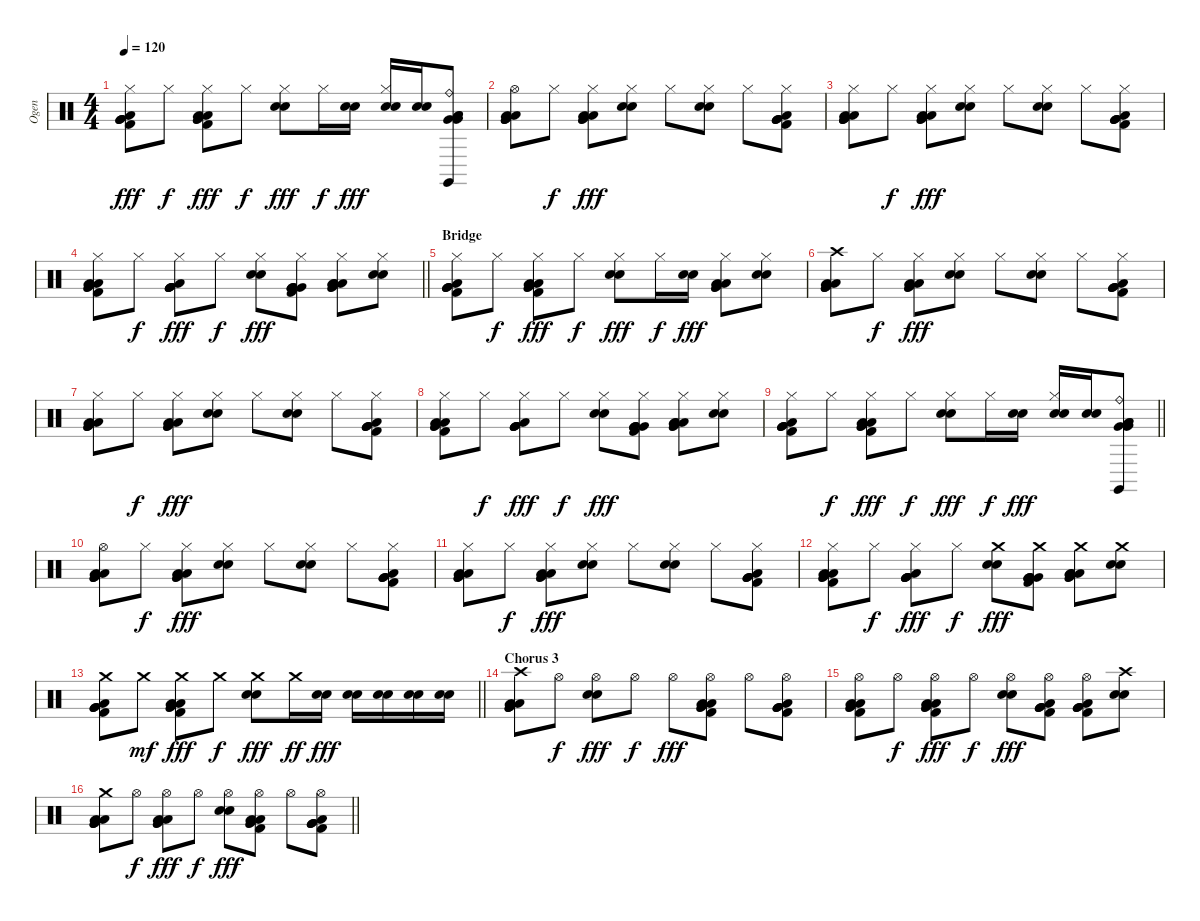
\track ("Ogen" "Ogen") {instrument percussion}
\staff {score}
\articulation defaults
\ts (4 4)
\tempo 120
\clef neutral
\ks c
("Hi-Hat (closed)" "Kick (hit) 2" "Very Low Tom (hit)" "Very Low Tom (hit)" "Low Floor Tom (hit)" "Very Low Tom (hit)").8{dy fff} "Hi-Hat (closed)".8{dy f} ("Hi-Hat (closed)" "Kick (hit) 2" "Very Low Tom (hit)" "Low Floor Tom (hit)" "Very Low Tom (hit)" "Low Floor Tom (hit)").8{dy fff} "Hi-Hat (closed)".8{dy f} ("Hi-Hat (closed)" "Snare (hit) 2" "Electric Snare (hit)").8{dy fff} "Hi-Hat (closed)".16{dy f} ("Snare (hit) 2" "Electric Snare (hit)").16{dy fff} ("Snare (hit) 2" "Electric Snare (hit)" "Hi-Hat (closed)").16 ("Electric Snare (hit)" "Snare (hit) 2").16 ("Ride (bell)" "Claves (hit)" "Very Low Tom (hit)" "Low Floor Tom (hit)" "Very Low Tom (hit)" "Low Floor Tom (hit)").8 |
("Hi-Hat (open)" "Very Low Tom (hit)" "Low Floor Tom (hit)" "Very Low Tom (hit)" "Low Floor Tom (hit)" "Very Low Tom (hit)").8 "Hi-Hat (closed)".8{dy f} ("Hi-Hat (closed)" "Very Low Tom (hit)" "Low Floor Tom (hit)" "Low Floor Tom (hit)" "Very Low Tom (hit)").8{dy fff} ("Hi-Hat (closed)" "Electric Snare (hit)" "Snare (hit) 2").8 "Hi-Hat (closed)".8 ("Hi-Hat (closed)" "Snare (hit) 2" "Electric Snare (hit)").8 "Hi-Hat (closed)".8 ("Hi-Hat (closed)" "Very Low Tom (hit)" "Kick (hit) 2" "Very Low Tom (hit)" "Low Floor Tom (hit)" "Very Low Tom (hit)").8 |
("Hi-Hat (closed)" "Very Low Tom (hit)" "Low Floor Tom (hit)" "Very Low Tom (hit)" "Low Floor Tom (hit)" "Very Low Tom (hit)").8 "Hi-Hat (closed)".8{dy f} ("Hi-Hat (closed)" "Very Low Tom (hit)" "Low Floor Tom (hit)" "Low Floor Tom (hit)" "Very Low Tom (hit)").8{dy fff} ("Hi-Hat (closed)" "Electric Snare (hit)" "Snare (hit) 2").8 "Hi-Hat (closed)".8 ("Hi-Hat (closed)" "Snare (hit) 2" "Electric Snare (hit)").8 "Hi-Hat (closed)".8 ("Hi-Hat (closed)" "Very Low Tom (hit)" "Kick (hit) 2" "Very Low Tom (hit)" "Low Floor Tom (hit)" "Very Low Tom (hit)").8 |
\barLineRight lightlight
("Hi-Hat (closed)" "Very Low Tom (hit)" "Low Floor Tom (hit)" "Kick (hit) 2" "Very Low Tom (hit)" "Low Floor Tom (hit)").8 "Hi-Hat (closed)".8{dy f} ("Hi-Hat (closed)" "Very Low Tom (hit)" "Low Floor Tom (hit)" "Very Low Tom (hit)" "Very Low Tom (hit)" "Very Low Tom (hit)").8{dy fff} "Hi-Hat (closed)".8{dy f} ("Hi-Hat (closed)" "Snare (hit) 2" "Electric Snare (hit)").8{dy fff} ("Hi-Hat (closed)" "Very Low Tom (hit)" "Kick (hit) 2" "Very Low Tom (hit)" "Very Low Tom (hit)" "Very Low Tom (hit)").8 ("Hi-Hat (closed)" "Low Floor Tom (hit)" "Low Floor Tom (hit)" "Low Floor Tom (hit)" "Very Low Tom (hit)" "Very Low Tom (hit)").8 ("Hi-Hat (closed)" "Electric Snare (hit)" "Snare (hit) 2").8 |
\section ("" "Bridge")
("Hi-Hat (closed)" "Kick (hit) 2" "Very Low Tom (hit)" "Very Low Tom (hit)" "Low Floor Tom (hit)" "Very Low Tom (hit)").8 "Hi-Hat (closed)".8{dy f} ("Hi-Hat (closed)" "Kick (hit) 2" "Very Low Tom (hit)" "Low Floor Tom (hit)" "Very Low Tom (hit)" "Low Floor Tom (hit)").8{dy fff} "Hi-Hat (closed)".8{dy f} ("Hi-Hat (closed)" "Snare (hit) 2" "Electric Snare (hit)").8{dy fff} "Hi-Hat (closed)".16{dy f} ("Snare (hit) 2" "Electric Snare (hit)").16{dy fff} ("Low Floor Tom (hit)" "Very Low Tom (hit)" "Low Floor Tom (hit)" "Very Low Tom (hit)" "Hi-Hat (closed)").8 ("Electric Snare (hit)" "Snare (hit) 2" "Hi-Hat (closed)").8 |
("Crash high (hit)" "Very Low Tom (hit)" "Low Floor Tom (hit)" "Very Low Tom (hit)" "Low Floor Tom (hit)" "Very Low Tom (hit)").8 "Hi-Hat (closed)".8{dy f} ("Hi-Hat (closed)" "Very Low Tom (hit)" "Low Floor Tom (hit)" "Low Floor Tom (hit)" "Very Low Tom (hit)").8{dy fff} ("Hi-Hat (closed)" "Electric Snare (hit)" "Snare (hit) 2").8 "Hi-Hat (closed)".8 ("Hi-Hat (closed)" "Snare (hit) 2" "Electric Snare (hit)").8 "Hi-Hat (closed)".8 ("Hi-Hat (closed)" "Very Low Tom (hit)" "Kick (hit) 2" "Very Low Tom (hit)" "Low Floor Tom (hit)" "Very Low Tom (hit)").8 |
("Hi-Hat (closed)" "Very Low Tom (hit)" "Low Floor Tom (hit)" "Very Low Tom (hit)" "Low Floor Tom (hit)" "Very Low Tom (hit)").8 "Hi-Hat (closed)".8{dy f} ("Hi-Hat (closed)" "Very Low Tom (hit)" "Low Floor Tom (hit)" "Low Floor Tom (hit)" "Very Low Tom (hit)").8{dy fff} ("Hi-Hat (closed)" "Electric Snare (hit)" "Snare (hit) 2").8 "Hi-Hat (closed)".8 ("Hi-Hat (closed)" "Snare (hit) 2" "Electric Snare (hit)").8 "Hi-Hat (closed)".8 ("Hi-Hat (closed)" "Very Low Tom (hit)" "Kick (hit) 2" "Very Low Tom (hit)" "Low Floor Tom (hit)" "Very Low Tom (hit)").8 |
("Hi-Hat (closed)" "Very Low Tom (hit)" "Low Floor Tom (hit)" "Kick (hit) 2" "Very Low Tom (hit)" "Low Floor Tom (hit)").8 "Hi-Hat (closed)".8{dy f} ("Hi-Hat (closed)" "Very Low Tom (hit)" "Low Floor Tom (hit)" "Very Low Tom (hit)" "Very Low Tom (hit)" "Very Low Tom (hit)").8{dy fff} "Hi-Hat (closed)".8{dy f} ("Hi-Hat (closed)" "Snare (hit) 2" "Electric Snare (hit)").8{dy fff} ("Hi-Hat (closed)" "Very Low Tom (hit)" "Kick (hit) 2" "Very Low Tom (hit)" "Very Low Tom (hit)" "Very Low Tom (hit)").8 ("Hi-Hat (closed)" "Low Floor Tom (hit)" "Low Floor Tom (hit)" "Low Floor Tom (hit)" "Very Low Tom (hit)" "Very Low Tom (hit)").8 ("Hi-Hat (closed)" "Electric Snare (hit)" "Snare (hit) 2").8 |
\barLineRight lightlight
("Hi-Hat (closed)" "Kick (hit) 2" "Very Low Tom (hit)" "Very Low Tom (hit)" "Low Floor Tom (hit)" "Very Low Tom (hit)").8 "Hi-Hat (closed)".8{dy f} ("Hi-Hat (closed)" "Kick (hit) 2" "Very Low Tom (hit)" "Low Floor Tom (hit)" "Very Low Tom (hit)" "Low Floor Tom (hit)").8{dy fff} "Hi-Hat (closed)".8{dy f} ("Hi-Hat (closed)" "Snare (hit) 2" "Electric Snare (hit)").8{dy fff} "Hi-Hat (closed)".16{dy f} ("Snare (hit) 2" "Electric Snare (hit)").16{dy fff} ("Snare (hit) 2" "Electric Snare (hit)" "Hi-Hat (closed)").16 ("Electric Snare (hit)" "Snare (hit) 2").16 ("Ride (bell)" "Claves (hit)" "Very Low Tom (hit)" "Low Floor Tom (hit)" "Very Low Tom (hit)" "Low Floor Tom (hit)").8 |
("Hi-Hat (open)" "Very Low Tom (hit)" "Low Floor Tom (hit)" "Very Low Tom (hit)" "Low Floor Tom (hit)" "Very Low Tom (hit)").8 "Hi-Hat (closed)".8{dy f} ("Hi-Hat (closed)" "Very Low Tom (hit)" "Low Floor Tom (hit)" "Low Floor Tom (hit)" "Very Low Tom (hit)").8{dy fff} ("Hi-Hat (closed)" "Electric Snare (hit)" "Snare (hit) 2").8 "Hi-Hat (closed)".8 ("Hi-Hat (closed)" "Snare (hit) 2" "Electric Snare (hit)").8 "Hi-Hat (closed)".8 ("Hi-Hat (closed)" "Very Low Tom (hit)" "Kick (hit) 2" "Very Low Tom (hit)" "Low Floor Tom (hit)" "Very Low Tom (hit)").8 |
("Hi-Hat (closed)" "Very Low Tom (hit)" "Low Floor Tom (hit)" "Very Low Tom (hit)" "Low Floor Tom (hit)" "Very Low Tom (hit)").8 "Hi-Hat (closed)".8{dy f} ("Hi-Hat (closed)" "Very Low Tom (hit)" "Low Floor Tom (hit)" "Low Floor Tom (hit)" "Very Low Tom (hit)").8{dy fff} ("Hi-Hat (closed)" "Electric Snare (hit)" "Snare (hit) 2").8 "Hi-Hat (closed)".8 ("Hi-Hat (closed)" "Snare (hit) 2" "Electric Snare (hit)").8 "Hi-Hat (closed)".8 ("Hi-Hat (closed)" "Very Low Tom (hit)" "Kick (hit) 2" "Very Low Tom (hit)" "Low Floor Tom (hit)" "Very Low Tom (hit)").8 |
("Hi-Hat (closed)" "Very Low Tom (hit)" "Low Floor Tom (hit)" "Kick (hit) 2" "Very Low Tom (hit)" "Low Floor Tom (hit)").8 "Hi-Hat (closed)".8{dy f} ("Hi-Hat (closed)" "Very Low Tom (hit)" "Low Floor Tom (hit)" "Very Low Tom (hit)" "Very Low Tom (hit)" "Very Low Tom (hit)").8{dy fff} "Hi-Hat (closed)".8{dy f} ("Crash medium (hit)" "Snare (hit) 2" "Electric Snare (hit)").8{dy fff} ("Crash medium (hit)" "Very Low Tom (hit)" "Kick (hit) 2" "Very Low Tom (hit)" "Very Low Tom (hit)" "Very Low Tom (hit)").8 ("Crash medium (hit)" "Low Floor Tom (hit)" "Low Floor Tom (hit)" "Low Floor Tom (hit)" "Very Low Tom (hit)" "Very Low Tom (hit)").8 ("Crash medium (hit)" "Electric Snare (hit)" "Snare (hit) 2").8 |
\barLineRight lightlight
("Crash medium (hit)" "Kick (hit) 2" "Very Low Tom (hit)" "Very Low Tom (hit)" "Low Floor Tom (hit)" "Very Low Tom (hit)").8 "Crash medium (hit)".8{dy mf} ("Crash medium (hit)" "Kick (hit) 2" "Very Low Tom (hit)" "Low Floor Tom (hit)" "Very Low Tom (hit)" "Low Floor Tom (hit)").8{dy fff} "Crash medium (hit)".8{dy f} ("Crash medium (hit)" "Snare (hit) 2" "Electric Snare (hit)").8{dy fff} "Crash medium (hit)".16{dy ff} ("Snare (hit) 2" "Electric Snare (hit)").16{dy fff} ("Snare (hit) 2" "Electric Snare (hit)").16 ("Electric Snare (hit)" "Snare (hit) 2").16 ("Snare (hit) 2" "Electric Snare (hit)").16 ("Electric Snare (hit)" "Snare (hit) 2").16 |
\section ("" "Chorus 3")
("Crash high (hit)" "Very Low Tom (hit)" "Low Floor Tom (hit)" "Very Low Tom (hit)" "Low Floor Tom (hit)" "Very Low Tom (hit)").8 "Hi-Hat (open)".8{dy f} ("Hi-Hat (open)" "Electric Snare (hit)" "Snare (hit) 2").8{dy fff} "Hi-Hat (open)".8{dy f} "Hi-Hat (open)".8{dy fff} ("Hi-Hat (open)" "Very Low Tom (hit)" "Kick (hit) 2" "Low Floor Tom (hit)" "Very Low Tom (hit)" "Low Floor Tom (hit)").8 "Hi-Hat (open)".8 ("Hi-Hat (open)" "Very Low Tom (hit)" "Kick (hit) 2" "Very Low Tom (hit)" "Low Floor Tom (hit)" "Very Low Tom (hit)").8 |
("Hi-Hat (open)" "Kick (hit) 2" "Very Low Tom (hit)" "Low Floor Tom (hit)" "Very Low Tom (hit)" "Low Floor Tom (hit)").8 "Hi-Hat (open)".8{dy f} ("Hi-Hat (open)" "Kick (hit) 2" "Very Low Tom (hit)" "Low Floor Tom (hit)" "Very Low Tom (hit)" "Low Floor Tom (hit)").8{dy fff} "Hi-Hat (open)".8{dy f} ("Hi-Hat (open)" "Snare (hit) 2" "Electric Snare (hit)").8{dy fff} ("Hi-Hat (open)" "Kick (hit) 2" "Very Low Tom (hit)" "Very Low Tom (hit)" "Low Floor Tom (hit)" "Very Low Tom (hit)").8 ("Hi-Hat (open)" "Very Low Tom (hit)" "Kick (hit) 2" "Very Low Tom (hit)" "Low Floor Tom (hit)" "Very Low Tom (hit)").8 ("Crash high (hit)" "Snare (hit) 2" "Electric Snare (hit)").8 |
\barLineRight lightlight
("Crash medium (hit)" "Very Low Tom (hit)" "Low Floor Tom (hit)" "Very Low Tom (hit)" "Low Floor Tom (hit)" "Very Low Tom (hit)").8 "Hi-Hat (open)".8{dy f} ("Hi-Hat (open)" "Very Low Tom (hit)" "Low Floor Tom (hit)" "Very Low Tom (hit)" "Low Floor Tom (hit)").8{dy fff} "Hi-Hat (open)".8{dy f} ("Hi-Hat (open)" "Snare (hit) 2" "Electric Snare (hit)").8{dy fff} ("Hi-Hat (open)" "Very Low Tom (hit)" "Kick (hit) 2" "Low Floor Tom (hit)" "Very Low Tom (hit)" "Low Floor Tom (hit)").8 "Hi-Hat (open)".8 ("Hi-Hat (open)" "Very Low Tom (hit)" "Kick (hit) 2" "Very Low Tom (hit)" "Low Floor Tom (hit)" "Very Low Tom (hit)").8
